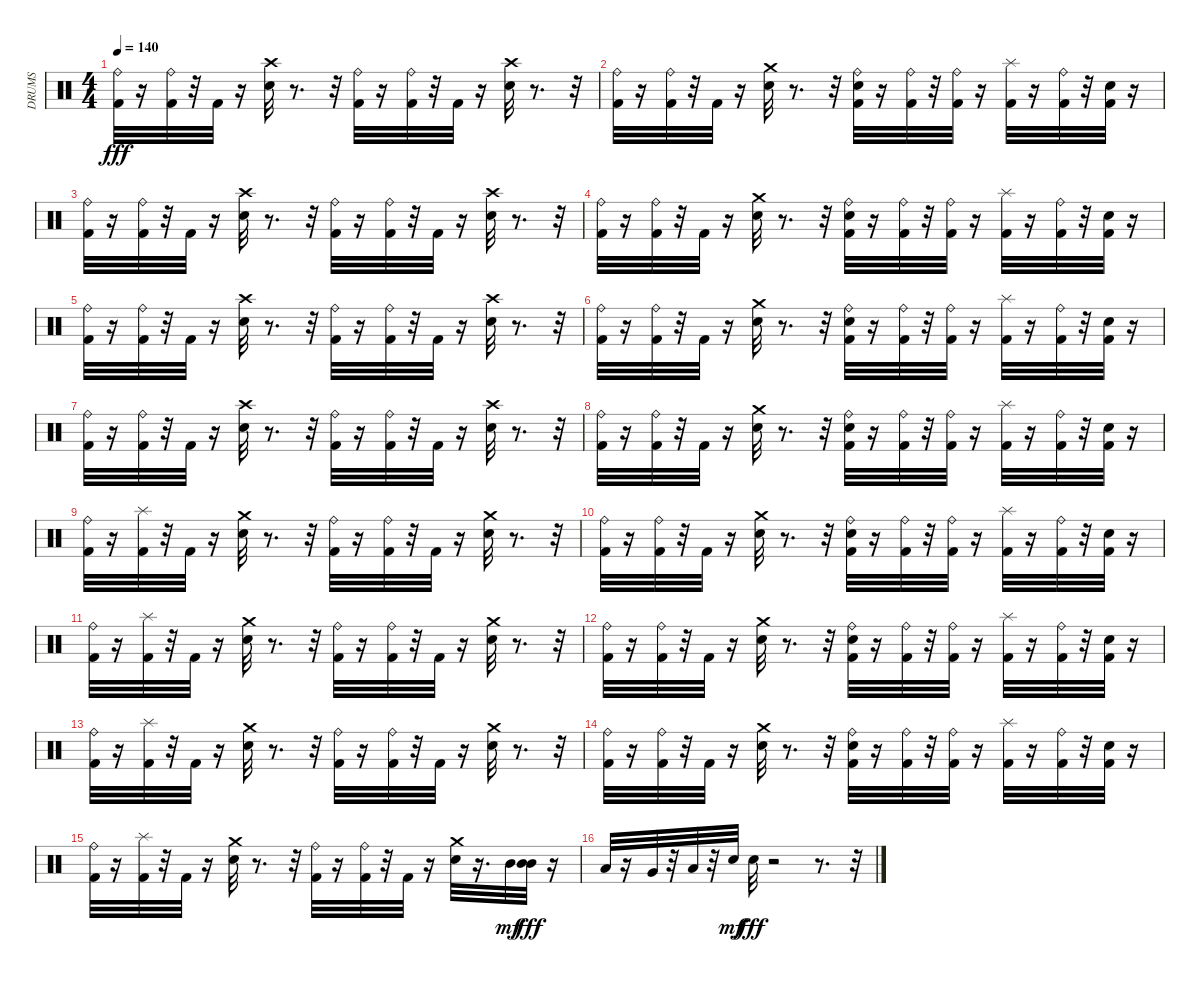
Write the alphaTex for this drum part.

\track ("DRUMS" "DRUMS") {instrument percussion}
\staff {score}
\articulation defaults
\ts (4 4)
\tempo 140
\clef neutral
\ks c
("Ride (bell)" "Kick (hit) 2").32{dy fff} r.16 ("Ride (bell)" "Kick (hit) 2").32 r.32 "Kick (hit) 2".32 r.16 ("Crash high (hit)" "Electric Snare (hit)").32 r.8{d} r.32 ("Ride (bell)" "Kick (hit) 2").32 r.16 ("Ride (bell)" "Kick (hit) 2").32 r.32 "Kick (hit) 2".32 r.16 ("Crash high (hit)" "Electric Snare (hit)").32 r.8{d} r.32 |
("Ride (bell)" "Kick (hit) 2").32 r.16 ("Ride (bell)" "Kick (hit) 2").32 r.32 "Kick (hit) 2".32 r.16 ("Crash medium (hit)" "Electric Snare (hit)").32 r.8{d} r.32 ("Ride (bell)" "Electric Snare (hit)" "Kick (hit) 2").32 r.16 ("Ride (bell)" "Kick (hit) 2").32 r.32 ("Ride (bell)" "Kick (hit) 2").32 r.16 ("Splash (hit)" "Kick (hit) 2").32 r.16 ("Ride (bell)" "Kick (hit) 2").32 r.32 ("Electric Snare (hit)" "Kick (hit) 2").32 r.16 |
("Ride (bell)" "Kick (hit) 2").32 r.16 ("Ride (bell)" "Kick (hit) 2").32 r.32 "Kick (hit) 2".32 r.16 ("Crash high (hit)" "Electric Snare (hit)").32 r.8{d} r.32 ("Ride (bell)" "Kick (hit) 2").32 r.16 ("Ride (bell)" "Kick (hit) 2").32 r.32 "Kick (hit) 2".32 r.16 ("Crash high (hit)" "Electric Snare (hit)").32 r.8{d} r.32 |
("Ride (bell)" "Kick (hit) 2").32 r.16 ("Ride (bell)" "Kick (hit) 2").32 r.32 "Kick (hit) 2".32 r.16 ("Crash medium (hit)" "Electric Snare (hit)").32 r.8{d} r.32 ("Ride (bell)" "Electric Snare (hit)" "Kick (hit) 2").32 r.16 ("Ride (bell)" "Kick (hit) 2").32 r.32 ("Ride (bell)" "Kick (hit) 2").32 r.16 ("Splash (hit)" "Kick (hit) 2").32 r.16 ("Ride (bell)" "Kick (hit) 2").32 r.32 ("Electric Snare (hit)" "Kick (hit) 2").32 r.16 |
("Ride (bell)" "Kick (hit) 2").32 r.16 ("Ride (bell)" "Kick (hit) 2").32 r.32 "Kick (hit) 2".32 r.16 ("Crash high (hit)" "Electric Snare (hit)").32 r.8{d} r.32 ("Ride (bell)" "Kick (hit) 2").32 r.16 ("Ride (bell)" "Kick (hit) 2").32 r.32 "Kick (hit) 2".32 r.16 ("Crash high (hit)" "Electric Snare (hit)").32 r.8{d} r.32 |
("Ride (bell)" "Kick (hit) 2").32 r.16 ("Ride (bell)" "Kick (hit) 2").32 r.32 "Kick (hit) 2".32 r.16 ("Crash medium (hit)" "Electric Snare (hit)").32 r.8{d} r.32 ("Ride (bell)" "Electric Snare (hit)" "Kick (hit) 2").32 r.16 ("Ride (bell)" "Kick (hit) 2").32 r.32 ("Ride (bell)" "Kick (hit) 2").32 r.16 ("Splash (hit)" "Kick (hit) 2").32 r.16 ("Ride (bell)" "Kick (hit) 2").32 r.32 ("Electric Snare (hit)" "Kick (hit) 2").32 r.16 |
("Ride (bell)" "Kick (hit) 2").32 r.16 ("Ride (bell)" "Kick (hit) 2").32 r.32 "Kick (hit) 2".32 r.16 ("Crash high (hit)" "Electric Snare (hit)").32 r.8{d} r.32 ("Ride (bell)" "Kick (hit) 2").32 r.16 ("Ride (bell)" "Kick (hit) 2").32 r.32 "Kick (hit) 2".32 r.16 ("Crash high (hit)" "Electric Snare (hit)").32 r.8{d} r.32 |
("Ride (bell)" "Kick (hit) 2").32 r.16 ("Ride (bell)" "Kick (hit) 2").32 r.32 "Kick (hit) 2".32 r.16 ("Crash medium (hit)" "Electric Snare (hit)").32 r.8{d} r.32 ("Ride (bell)" "Electric Snare (hit)" "Kick (hit) 2").32 r.16 ("Ride (bell)" "Kick (hit) 2").32 r.32 ("Ride (bell)" "Kick (hit) 2").32 r.16 ("Splash (hit)" "Kick (hit) 2").32 r.16 ("Ride (bell)" "Kick (hit) 2").32 r.32 ("Electric Snare (hit)" "Kick (hit) 2").32 r.16 |
("Ride (bell)" "Kick (hit) 2").32 r.16 ("Splash (hit)" "Kick (hit) 2").32 r.32 "Kick (hit) 2".32 r.16 ("Crash medium (hit)" "Electric Snare (hit)").32 r.8{d} r.32 ("Ride (bell)" "Kick (hit) 2").32 r.16 ("Ride (bell)" "Kick (hit) 2").32 r.32 "Kick (hit) 2".32 r.16 ("Crash medium (hit)" "Electric Snare (hit)").32 r.8{d} r.32 |
("Ride (bell)" "Kick (hit) 2").32 r.16 ("Ride (bell)" "Kick (hit) 2").32 r.32 "Kick (hit) 2".32 r.16 ("Crash medium (hit)" "Electric Snare (hit)").32 r.8{d} r.32 ("Ride (bell)" "Electric Snare (hit)" "Kick (hit) 2").32 r.16 ("Ride (bell)" "Kick (hit) 2").32 r.32 ("Ride (bell)" "Kick (hit) 2").32 r.16 ("Splash (hit)" "Kick (hit) 2").32 r.16 ("Ride (bell)" "Kick (hit) 2").32 r.32 ("Electric Snare (hit)" "Kick (hit) 2").32 r.16 |
("Ride (bell)" "Kick (hit) 2").32 r.16 ("Splash (hit)" "Kick (hit) 2").32 r.32 "Kick (hit) 2".32 r.16 ("Crash medium (hit)" "Electric Snare (hit)").32 r.8{d} r.32 ("Ride (bell)" "Kick (hit) 2").32 r.16 ("Ride (bell)" "Kick (hit) 2").32 r.32 "Kick (hit) 2".32 r.16 ("Crash medium (hit)" "Electric Snare (hit)").32 r.8{d} r.32 |
("Ride (bell)" "Kick (hit) 2").32 r.16 ("Ride (bell)" "Kick (hit) 2").32 r.32 "Kick (hit) 2".32 r.16 ("Crash medium (hit)" "Electric Snare (hit)").32 r.8{d} r.32 ("Ride (bell)" "Electric Snare (hit)" "Kick (hit) 2").32 r.16 ("Ride (bell)" "Kick (hit) 2").32 r.32 ("Ride (bell)" "Kick (hit) 2").32 r.16 ("Splash (hit)" "Kick (hit) 2").32 r.16 ("Ride (bell)" "Kick (hit) 2").32 r.32 ("Electric Snare (hit)" "Kick (hit) 2").32 r.16 |
("Ride (bell)" "Kick (hit) 2").32 r.16 ("Splash (hit)" "Kick (hit) 2").32 r.32 "Kick (hit) 2".32 r.16 ("Crash medium (hit)" "Electric Snare (hit)").32 r.8{d} r.32 ("Ride (bell)" "Kick (hit) 2").32 r.16 ("Ride (bell)" "Kick (hit) 2").32 r.32 "Kick (hit) 2".32 r.16 ("Crash medium (hit)" "Electric Snare (hit)").32 r.8{d} r.32 |
("Ride (bell)" "Kick (hit) 2").32 r.16 ("Ride (bell)" "Kick (hit) 2").32 r.32 "Kick (hit) 2".32 r.16 ("Crash medium (hit)" "Electric Snare (hit)").32 r.8{d} r.32 ("Ride (bell)" "Electric Snare (hit)" "Kick (hit) 2").32 r.16 ("Ride (bell)" "Kick (hit) 2").32 r.32 ("Ride (bell)" "Kick (hit) 2").32 r.16 ("Splash (hit)" "Kick (hit) 2").32 r.16 ("Ride (bell)" "Kick (hit) 2").32 r.32 ("Electric Snare (hit)" "Kick (hit) 2").32 r.16 |
("Ride (bell)" "Kick (hit) 2").32 r.16 ("Splash (hit)" "Kick (hit) 2").32 r.32 "Kick (hit) 2".32 r.16 ("Crash medium (hit)" "Electric Snare (hit)").32 r.8{d} r.32 ("Ride (bell)" "Kick (hit) 2").32 r.16 ("Ride (bell)" "Kick (hit) 2").32 r.32 "Kick (hit) 2".32 r.16 ("Crash medium (hit)" "Electric Snare (hit)").32 r.16{d} "Mid Tom (hit)".32{dy mf} ("Mid Tom (hit)" "Mid Tom (hit)").32{dy fff} r.16 |
"Low Tom (hit)".32 r.16 "Very Low Tom (hit)".32 r.32 "Low Floor Tom (hit)".32 r.32 "Electric Snare (hit)".32{dy mf} "Electric Snare (hit)".32{dy fff} r.2 r.8{d} r.32
